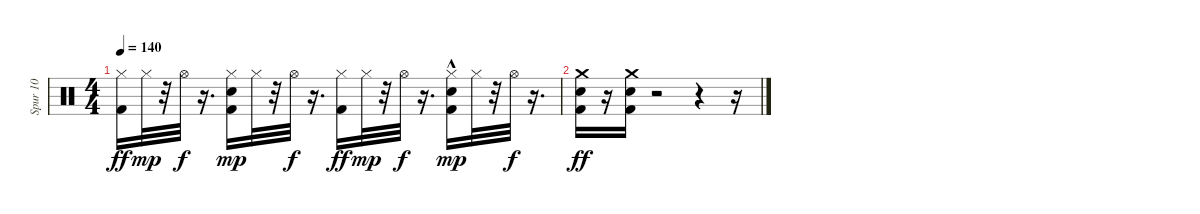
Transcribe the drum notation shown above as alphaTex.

\track ("Spur 10" "Spur 10") {instrument percussion}
\staff {score}
\articulation defaults
\ts (4 4)
\tempo 140
\clef neutral
\ks c
("Hi-Hat (closed)" "Kick (hit) 2").16{dy ff} "Hi-Hat (closed)".32{dy mp} r.32 "Hi-Hat (open)".32{dy f} r.16{d} ("Kick (hit) 2" "Electric Snare (hit)" "Hi-Hat (closed)").16{dy mp} "Hi-Hat (closed)".32 r.32 "Hi-Hat (open)".32{dy f} r.16{d} ("Hi-Hat (closed)" "Kick (hit) 2").16{dy ff} "Hi-Hat (closed)".32{dy mp} r.32 "Hi-Hat (open)".32{dy f} r.16{d} ("Kick (hit) 2" "Hi-Hat (closed)" "Electric Snare (hit)"{hac}).16{dy mp} "Hi-Hat (closed)".32 r.32 "Hi-Hat (open)".32{dy f} r.16{d} |
("Crash medium (hit)" "Kick (hit) 2" "Electric Snare (hit)").16{dy ff} r.16 ("Crash medium (hit)" "Electric Snare (hit)" "Kick (hit) 2").16 r.2 r.4 r.16
